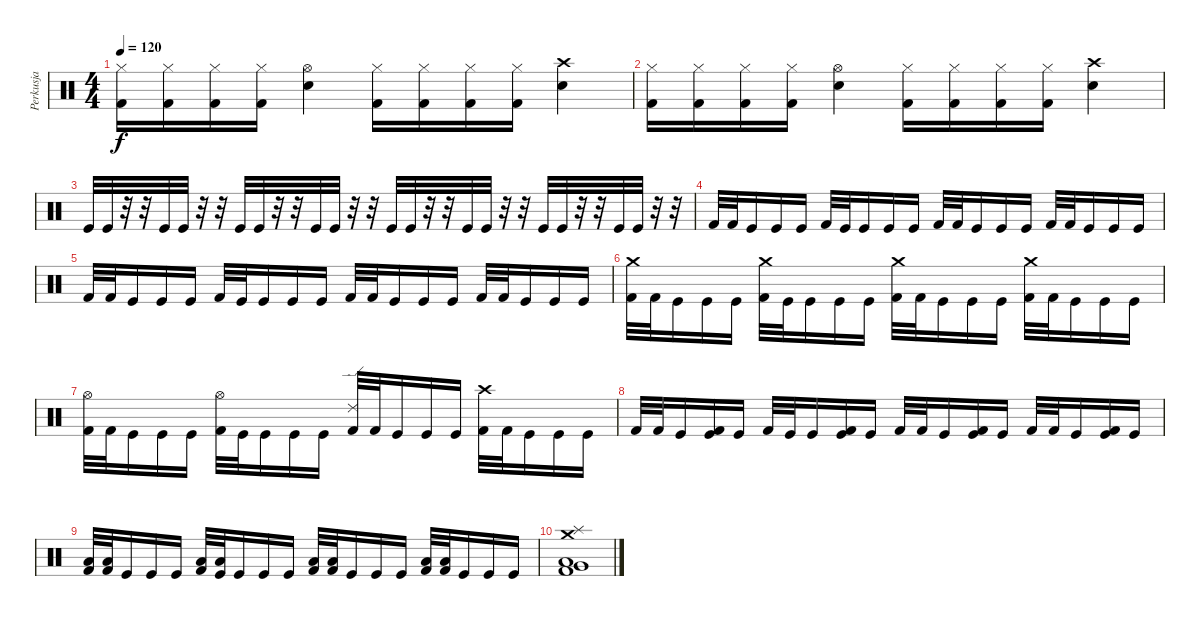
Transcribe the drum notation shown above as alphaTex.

\track ("Perkusja" "Perkusja") {instrument percussion}
\staff {score}
\articulation defaults
\ts (4 4)
\tempo 120
\clef neutral
\ks c
("Hi-Hat (closed)" "Kick (hit) 2").16{dy f} ("Hi-Hat (closed)" "Kick (hit) 2").16 ("Hi-Hat (closed)" "Kick (hit) 2").16 ("Hi-Hat (closed)" "Kick (hit) 2").16 ("Hi-Hat (open)" "Electric Snare (hit)").4 ("Hi-Hat (closed)" "Kick (hit) 2").16 ("Hi-Hat (closed)" "Kick (hit) 2").16 ("Hi-Hat (closed)" "Kick (hit) 2").16 ("Hi-Hat (closed)" "Kick (hit) 2").16 ("Crash high (hit)" "Electric Snare (hit)").4 |
("Hi-Hat (closed)" "Kick (hit) 2").16 ("Hi-Hat (closed)" "Kick (hit) 2").16 ("Hi-Hat (closed)" "Kick (hit) 2").16 ("Hi-Hat (closed)" "Kick (hit) 2").16 ("Hi-Hat (open)" "Electric Snare (hit)").4 ("Hi-Hat (closed)" "Kick (hit) 2").16 ("Hi-Hat (closed)" "Kick (hit) 2").16 ("Hi-Hat (closed)" "Kick (hit) 2").16 ("Hi-Hat (closed)" "Kick (hit) 2").16 ("Crash high (hit)" "Electric Snare (hit)").4 |
"Kick (hit)".32 "Kick (hit)".32 r.32 r.32 "Kick (hit)".32 "Kick (hit)".32 r.32 r.32 "Kick (hit)".32 "Kick (hit)".32 r.32 r.32 "Kick (hit)".32 "Kick (hit)".32 r.32 r.32 "Kick (hit)".32 "Kick (hit)".32 r.32 r.32 "Kick (hit)".32 "Kick (hit)".32 r.32 r.32 "Kick (hit)".32 "Kick (hit)".32 r.32 r.32 "Kick (hit)".32 "Kick (hit)".32 r.32 r.32 |
"Kick (hit) 2".32 "Kick (hit) 2".32 "Kick (hit)".16 "Kick (hit)".16 "Kick (hit)".16 "Kick (hit) 2".32 "Kick (hit)".32 "Kick (hit)".16 "Kick (hit)".16 "Kick (hit)".16 "Kick (hit) 2".32 "Kick (hit) 2".32 "Kick (hit)".16 "Kick (hit)".16 "Kick (hit)".16 "Kick (hit) 2".32 "Kick (hit) 2".32 "Kick (hit)".16 "Kick (hit)".16 "Kick (hit)".16 |
"Kick (hit) 2".32 "Kick (hit) 2".32 "Kick (hit)".16 "Kick (hit)".16 "Kick (hit)".16 "Kick (hit) 2".32 "Kick (hit)".32 "Kick (hit)".16 "Kick (hit)".16 "Kick (hit)".16 "Kick (hit) 2".32 "Kick (hit) 2".32 "Kick (hit)".16 "Kick (hit)".16 "Kick (hit)".16 "Kick (hit) 2".32 "Kick (hit) 2".32 "Kick (hit)".16 "Kick (hit)".16 "Kick (hit)".16 |
("Crash medium (hit)" "Kick (hit) 2").32 "Kick (hit) 2".32 "Kick (hit)".16 "Kick (hit)".16 "Kick (hit)".16 ("Crash medium (hit)" "Kick (hit) 2").32 "Kick (hit)".32 "Kick (hit)".16 "Kick (hit)".16 "Kick (hit)".16 ("Crash medium (hit)" "Kick (hit) 2").32 "Kick (hit) 2".32 "Kick (hit)".16 "Kick (hit)".16 "Kick (hit)".16 ("Crash medium (hit)" "Kick (hit) 2").32 "Kick (hit) 2".32 "Kick (hit)".16 "Kick (hit)".16 "Kick (hit)".16 |
("Hi-Hat (open)" "Kick (hit) 2").32 "Kick (hit) 2".32 "Kick (hit)".16 "Kick (hit)".16 "Kick (hit)".16 ("Hi-Hat (open)" "Kick (hit) 2").32 "Kick (hit)".32 "Kick (hit)".16 "Kick (hit)".16 "Kick (hit)".16 ("Ride (edge) 2" "Kick (hit) 2").32 "Kick (hit) 2".32 "Kick (hit)".16 "Kick (hit)".16 "Kick (hit)".16 ("Crash high (hit)" "Kick (hit) 2").32 "Kick (hit) 2".32 "Kick (hit)".16 "Kick (hit)".16 "Kick (hit)".16 |
"Kick (hit) 2".32 "Kick (hit) 2".32 "Kick (hit)".16 ("Kick (hit)" "Kick (hit) 2").16 "Kick (hit)".16 "Kick (hit) 2".32 "Kick (hit)".32 "Kick (hit)".16 ("Kick (hit)" "Kick (hit) 2").16 "Kick (hit)".16 "Kick (hit) 2".32 "Kick (hit) 2".32 "Kick (hit)".16 ("Kick (hit)" "Kick (hit) 2").16 "Kick (hit)".16 "Kick (hit) 2".32 "Kick (hit) 2".32 "Kick (hit)".16 ("Kick (hit)" "Kick (hit) 2").16 "Kick (hit)".16 |
("Low Tom (hit)" "Kick (hit) 2").32 ("Low Tom (hit)" "Kick (hit) 2").32 "Kick (hit)".16 "Kick (hit)".16 "Kick (hit)".16 ("Low Tom (hit)" "Kick (hit) 2").32 ("Low Tom (hit)" "Kick (hit)").32 "Kick (hit)".16 "Kick (hit)".16 "Kick (hit)".16 ("Low Tom (hit)" "Kick (hit) 2").32 ("Low Tom (hit)" "Kick (hit) 2").32 "Kick (hit)".16 "Kick (hit)".16 "Kick (hit)".16 ("Low Tom (hit)" "Kick (hit) 2").32 ("Low Tom (hit)" "Kick (hit) 2").32 "Kick (hit)".16 "Kick (hit)".16 "Kick (hit)".16 |
("Kick (hit) 2" "Crash medium (hit)" "Splash (hit)" "Very Low Tom (hit)" "Low Tom (hit)").1
